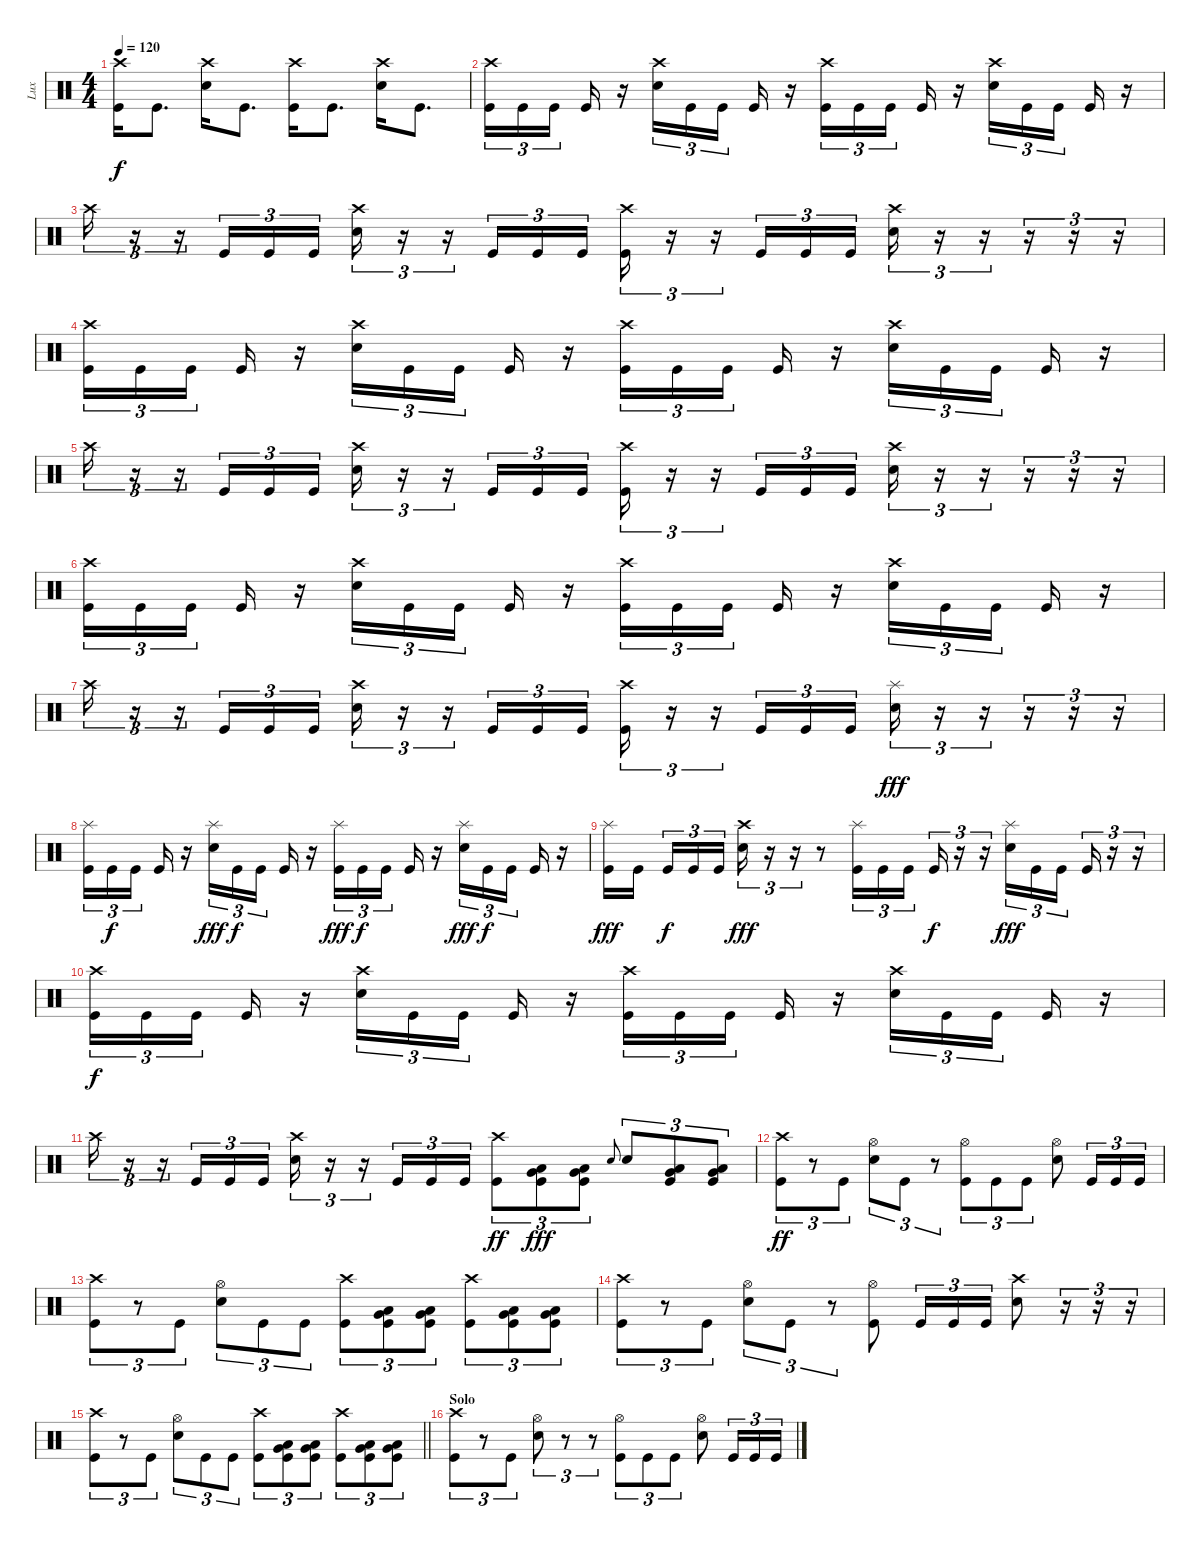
\track ("Lux" "Lux") {instrument percussion bank 32}
\staff {score}
\articulation defaults
\ts (4 4)
\tempo 120
\clef neutral
\ks c
("Crash high (hit)" "Kick (hit)").16{dy f} "Kick (hit)".8{d} ("Crash high (hit)" "Snare (hit) 2").16 "Kick (hit)".8{d} ("Crash high (hit)" "Kick (hit)").16 "Kick (hit)".8{d} ("Crash high (hit)" "Snare (hit) 2").16 "Kick (hit)".8{d} |
("Crash high (hit)" "Kick (hit)").16{tu (3 2)} "Kick (hit)".16{tu (3 2)} "Kick (hit)".16{tu (3 2) beam splitsecondary} "Kick (hit)".16 r.16 ("Crash high (hit)" "Snare (hit) 2").16{tu (3 2)} "Kick (hit)".16{tu (3 2)} "Kick (hit)".16{tu (3 2) beam splitsecondary} "Kick (hit)".16 r.16 ("Crash high (hit)" "Kick (hit)").16{tu (3 2)} "Kick (hit)".16{tu (3 2)} "Kick (hit)".16{tu (3 2) beam splitsecondary} "Kick (hit)".16 r.16 ("Crash high (hit)" "Snare (hit) 2").16{tu (3 2)} "Kick (hit)".16{tu (3 2)} "Kick (hit)".16{tu (3 2) beam splitsecondary} "Kick (hit)".16 r.16 |
"Crash high (hit)".16{tu (3 2)} r.16{tu (3 2)} r.16{tu (3 2)} "Kick (hit)".16{tu (3 2)} "Kick (hit)".16{tu (3 2)} "Kick (hit)".16{tu (3 2)} ("Crash high (hit)" "Snare (hit) 2").16{tu (3 2)} r.16{tu (3 2)} r.16{tu (3 2)} "Kick (hit)".16{tu (3 2)} "Kick (hit)".16{tu (3 2)} "Kick (hit)".16{tu (3 2)} ("Crash high (hit)" "Kick (hit)").16{tu (3 2)} r.16{tu (3 2)} r.16{tu (3 2)} "Kick (hit)".16{tu (3 2)} "Kick (hit)".16{tu (3 2)} "Kick (hit)".16{tu (3 2)} ("Crash high (hit)" "Snare (hit) 2").16{tu (3 2)} r.16{tu (3 2)} r.16{tu (3 2)} r.16{tu (3 2)} r.16{tu (3 2)} r.16{tu (3 2)} |
("Crash high (hit)" "Kick (hit)").16{tu (3 2)} "Kick (hit)".16{tu (3 2)} "Kick (hit)".16{tu (3 2) beam splitsecondary} "Kick (hit)".16 r.16 ("Crash high (hit)" "Snare (hit) 2").16{tu (3 2)} "Kick (hit)".16{tu (3 2)} "Kick (hit)".16{tu (3 2) beam splitsecondary} "Kick (hit)".16 r.16 ("Crash high (hit)" "Kick (hit)").16{tu (3 2)} "Kick (hit)".16{tu (3 2)} "Kick (hit)".16{tu (3 2) beam splitsecondary} "Kick (hit)".16 r.16 ("Crash high (hit)" "Snare (hit) 2").16{tu (3 2)} "Kick (hit)".16{tu (3 2)} "Kick (hit)".16{tu (3 2) beam splitsecondary} "Kick (hit)".16 r.16 |
"Crash high (hit)".16{tu (3 2)} r.16{tu (3 2)} r.16{tu (3 2)} "Kick (hit)".16{tu (3 2)} "Kick (hit)".16{tu (3 2)} "Kick (hit)".16{tu (3 2)} ("Crash high (hit)" "Snare (hit) 2").16{tu (3 2)} r.16{tu (3 2)} r.16{tu (3 2)} "Kick (hit)".16{tu (3 2)} "Kick (hit)".16{tu (3 2)} "Kick (hit)".16{tu (3 2)} ("Crash high (hit)" "Kick (hit)").16{tu (3 2)} r.16{tu (3 2)} r.16{tu (3 2)} "Kick (hit)".16{tu (3 2)} "Kick (hit)".16{tu (3 2)} "Kick (hit)".16{tu (3 2)} ("Crash high (hit)" "Snare (hit) 2").16{tu (3 2)} r.16{tu (3 2)} r.16{tu (3 2)} r.16{tu (3 2)} r.16{tu (3 2)} r.16{tu (3 2)} |
("Crash high (hit)" "Kick (hit)").16{tu (3 2)} "Kick (hit)".16{tu (3 2)} "Kick (hit)".16{tu (3 2) beam splitsecondary} "Kick (hit)".16 r.16 ("Crash high (hit)" "Snare (hit) 2").16{tu (3 2)} "Kick (hit)".16{tu (3 2)} "Kick (hit)".16{tu (3 2) beam splitsecondary} "Kick (hit)".16 r.16 ("Crash high (hit)" "Kick (hit)").16{tu (3 2)} "Kick (hit)".16{tu (3 2)} "Kick (hit)".16{tu (3 2) beam splitsecondary} "Kick (hit)".16 r.16 ("Crash high (hit)" "Snare (hit) 2").16{tu (3 2)} "Kick (hit)".16{tu (3 2)} "Kick (hit)".16{tu (3 2) beam splitsecondary} "Kick (hit)".16 r.16 |
"Crash high (hit)".16{tu (3 2)} r.16{tu (3 2)} r.16{tu (3 2)} "Kick (hit)".16{tu (3 2)} "Kick (hit)".16{tu (3 2)} "Kick (hit)".16{tu (3 2)} ("Crash high (hit)" "Snare (hit) 2").16{tu (3 2)} r.16{tu (3 2)} r.16{tu (3 2)} "Kick (hit)".16{tu (3 2)} "Kick (hit)".16{tu (3 2)} "Kick (hit)".16{tu (3 2)} ("Crash high (hit)" "Kick (hit)").16{tu (3 2)} r.16{tu (3 2)} r.16{tu (3 2)} "Kick (hit)".16{tu (3 2)} "Kick (hit)".16{tu (3 2)} "Kick (hit)".16{tu (3 2)} ("Splash (hit)" "Snare (hit) 2").16{tu (3 2) dy fff} r.16{tu (3 2)} r.16{tu (3 2)} r.16{tu (3 2)} r.16{tu (3 2)} r.16{tu (3 2)} |
("Splash (hit)" "Kick (hit)").16{tu (3 2)} "Kick (hit)".16{tu (3 2) dy f} "Kick (hit)".16{tu (3 2) beam splitsecondary} "Kick (hit)".16 r.16 ("Splash (hit)" "Snare (hit) 2").16{tu (3 2) dy fff} "Kick (hit)".16{tu (3 2) dy f} "Kick (hit)".16{tu (3 2) beam splitsecondary} "Kick (hit)".16 r.16 ("Splash (hit)" "Kick (hit)").16{tu (3 2) dy fff} "Kick (hit)".16{tu (3 2) dy f} "Kick (hit)".16{tu (3 2) beam splitsecondary} "Kick (hit)".16 r.16 ("Splash (hit)" "Snare (hit) 2").16{tu (3 2) dy fff} "Kick (hit)".16{tu (3 2) dy f} "Kick (hit)".16{tu (3 2) beam splitsecondary} "Kick (hit)".16 r.16 |
("Splash (hit)" "Kick (hit)").16{dy fff} "Kick (hit)".16{beam splitsecondary} "Kick (hit)".16{tu (3 2) dy f} "Kick (hit)".16{tu (3 2)} "Kick (hit)".16{tu (3 2)} ("Crash high (hit)" "Snare (hit) 2").16{tu (3 2) dy fff} r.16{tu (3 2)} r.16{tu (3 2)} r.8 ("Splash (hit)" "Kick (hit)").16{tu (3 2)} "Kick (hit)".16{tu (3 2)} "Kick (hit)".16{tu (3 2) beam splitsecondary} "Kick (hit)".16{tu (3 2) dy f} r.16{tu (3 2)} r.16{tu (3 2)} ("Splash (hit)" "Snare (hit) 2").16{tu (3 2) dy fff} "Kick (hit)".16{tu (3 2)} "Kick (hit)".16{tu (3 2) beam splitsecondary} "Kick (hit)".16{tu (3 2)} r.16{tu (3 2)} r.16{tu (3 2)} |
("Crash high (hit)" "Kick (hit)").16{tu (3 2) dy f} "Kick (hit)".16{tu (3 2)} "Kick (hit)".16{tu (3 2) beam splitsecondary} "Kick (hit)".16 r.16 ("Crash high (hit)" "Snare (hit) 2").16{tu (3 2)} "Kick (hit)".16{tu (3 2)} "Kick (hit)".16{tu (3 2) beam splitsecondary} "Kick (hit)".16 r.16 ("Crash high (hit)" "Kick (hit)").16{tu (3 2)} "Kick (hit)".16{tu (3 2)} "Kick (hit)".16{tu (3 2) beam splitsecondary} "Kick (hit)".16 r.16 ("Crash high (hit)" "Snare (hit) 2").16{tu (3 2)} "Kick (hit)".16{tu (3 2)} "Kick (hit)".16{tu (3 2) beam splitsecondary} "Kick (hit)".16 r.16 |
"Crash high (hit)".16{tu (3 2)} r.16{tu (3 2)} r.16{tu (3 2)} "Kick (hit)".16{tu (3 2)} "Kick (hit)".16{tu (3 2)} "Kick (hit)".16{tu (3 2)} ("Crash high (hit)" "Snare (hit) 2").16{tu (3 2)} r.16{tu (3 2)} r.16{tu (3 2)} "Kick (hit)".16{tu (3 2)} "Kick (hit)".16{tu (3 2)} "Kick (hit)".16{tu (3 2)} ("Crash high (hit)" "Kick (hit)").8{tu (3 2) dy ff} ("Low Tom (hit)" "Very Low Tom (hit)" "Kick (hit)").8{tu (3 2) dy fff} ("Very Low Tom (hit)" "Low Floor Tom (hit)" "Kick (hit)").8{tu (3 2)} "Snare (hit) 2".8{gr onbeat} "Snare (hit) 2".8{tu (3 2)} ("Low Tom (hit)" "Very Low Tom (hit)" "Kick (hit)").8{tu (3 2)} ("Very Low Tom (hit)" "Low Floor Tom (hit)" "Kick (hit)").8{tu (3 2)} |
("Crash high (hit)" "Kick (hit)").8{tu (3 2) dy ff} r.8{tu (3 2)} "Kick (hit)".8{tu (3 2)} ("Hi-Hat (open)" "Snare (hit) 2").8{tu (3 2)} "Kick (hit)".8{tu (3 2)} r.8{tu (3 2)} ("Hi-Hat (open)" "Kick (hit)").8{tu (3 2)} "Kick (hit)".8{tu (3 2)} "Kick (hit)".8{tu (3 2)} ("Hi-Hat (open)" "Snare (hit) 2").8 "Kick (hit)".16{tu (3 2)} "Kick (hit)".16{tu (3 2)} "Kick (hit)".16{tu (3 2)} |
("Crash high (hit)" "Kick (hit)").8{tu (3 2)} r.8{tu (3 2)} "Kick (hit)".8{tu (3 2)} ("Hi-Hat (open)" "Snare (hit) 2").8{tu (3 2)} "Kick (hit)".8{tu (3 2)} "Kick (hit)".8{tu (3 2)} ("Crash high (hit)" "Kick (hit)").8{tu (3 2)} ("Low Floor Tom (hit)" "Very Low Tom (hit)" "Kick (hit)").8{tu (3 2)} ("Low Floor Tom (hit)" "Very Low Tom (hit)" "Kick (hit)").8{tu (3 2)} ("Crash high (hit)" "Kick (hit)").8{tu (3 2)} ("Low Floor Tom (hit)" "Very Low Tom (hit)" "Kick (hit)").8{tu (3 2)} ("Low Floor Tom (hit)" "Very Low Tom (hit)" "Kick (hit)").8{tu (3 2)} |
("Crash high (hit)" "Kick (hit)").8{tu (3 2)} r.8{tu (3 2)} "Kick (hit)".8{tu (3 2)} ("Hi-Hat (open)" "Snare (hit) 2").8{tu (3 2)} "Kick (hit)".8{tu (3 2)} r.8{tu (3 2)} ("Hi-Hat (open)" "Kick (hit)").8 "Kick (hit)".16{tu (3 2)} "Kick (hit)".16{tu (3 2)} "Kick (hit)".16{tu (3 2)} ("Crash high (hit)" "Snare (hit) 2").8 r.16{tu (3 2)} r.16{tu (3 2)} r.16{tu (3 2)} |
\barLineRight lightlight
("Crash high (hit)" "Kick (hit)").8{tu (3 2)} r.8{tu (3 2)} "Kick (hit)".8{tu (3 2)} ("Hi-Hat (open)" "Snare (hit) 2").8{tu (3 2)} "Kick (hit)".8{tu (3 2)} "Kick (hit)".8{tu (3 2)} ("Crash high (hit)" "Kick (hit)").8{tu (3 2)} ("Low Floor Tom (hit)" "Very Low Tom (hit)" "Kick (hit)").8{tu (3 2)} ("Low Floor Tom (hit)" "Very Low Tom (hit)" "Kick (hit)").8{tu (3 2)} ("Crash high (hit)" "Kick (hit)").8{tu (3 2)} ("Low Floor Tom (hit)" "Very Low Tom (hit)" "Kick (hit)").8{tu (3 2)} ("Low Floor Tom (hit)" "Very Low Tom (hit)" "Kick (hit)").8{tu (3 2)} |
\section ("" "Solo")
("Crash high (hit)" "Kick (hit)").8{tu (3 2)} r.8{tu (3 2)} "Kick (hit)".8{tu (3 2)} ("Hi-Hat (open)" "Snare (hit) 2").8{tu (3 2)} r.8{tu (3 2)} r.8{tu (3 2)} ("Hi-Hat (open)" "Kick (hit)").8{tu (3 2)} "Kick (hit)".8{tu (3 2)} "Kick (hit)".8{tu (3 2)} ("Hi-Hat (open)" "Snare (hit) 2").8 "Kick (hit)".16{tu (3 2)} "Kick (hit)".16{tu (3 2)} "Kick (hit)".16{tu (3 2)}
